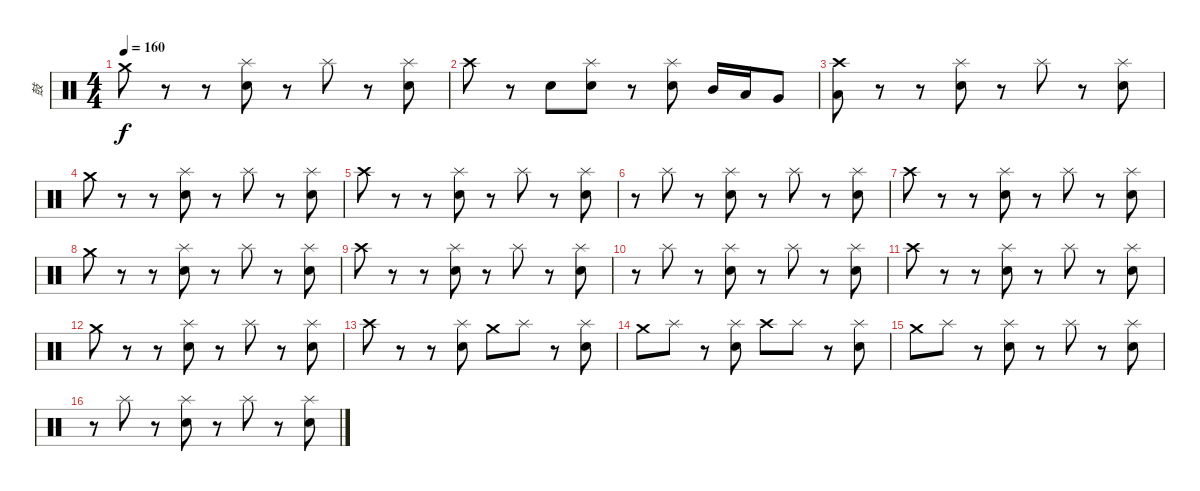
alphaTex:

\track ("鼓" "鼓") {instrument percussion}
\staff {score}
\articulation defaults
\ts (4 4)
\tempo 160
\clef neutral
\ks c "Crash medium (hit)".8{dy f}
r.8 r.8 ("Splash (hit)" "Snare (hit) 2").8 r.8 "Splash (hit)".8 r.8 ("Splash (hit)" "Snare (hit) 2").8 |
"Crash high (hit)".8 r.8 "Snare (hit) 2".8 ("Splash (hit)" "Snare (hit) 2").8 r.8 ("Splash (hit)" "Snare (hit) 2").8 "Mid Tom (hit)".16 "Low Tom (hit)".16 "Very Low Tom (hit)".8 |
("Crash high (hit)" "Low Floor Tom (hit)").8 r.8 r.8 ("Splash (hit)" "Snare (hit) 2").8 r.8 "Splash (hit)".8 r.8 ("Splash (hit)" "Snare (hit) 2").8 |
"Crash medium (hit)".8 r.8 r.8 ("Splash (hit)" "Snare (hit) 2").8 r.8 "Splash (hit)".8 r.8 ("Splash (hit)" "Snare (hit) 2").8 |
"Crash high (hit)".8 r.8 r.8 ("Splash (hit)" "Snare (hit) 2").8 r.8 "Splash (hit)".8 r.8 ("Splash (hit)" "Snare (hit) 2").8 |
r.8 "Splash (hit)".8 r.8 ("Splash (hit)" "Snare (hit) 2").8 r.8 "Splash (hit)".8 r.8 ("Splash (hit)" "Snare (hit) 2").8 |
"Crash high (hit)".8 r.8 r.8 ("Splash (hit)" "Snare (hit) 2").8 r.8 "Splash (hit)".8 r.8 ("Splash (hit)" "Snare (hit) 2").8 |
"Crash medium (hit)".8 r.8 r.8 ("Splash (hit)" "Snare (hit) 2").8 r.8 "Splash (hit)".8 r.8 ("Splash (hit)" "Snare (hit) 2").8 |
"Crash high (hit)".8 r.8 r.8 ("Splash (hit)" "Snare (hit) 2").8 r.8 "Splash (hit)".8 r.8 ("Splash (hit)" "Snare (hit) 2").8 |
r.8 "Splash (hit)".8 r.8 ("Splash (hit)" "Snare (hit) 2").8 r.8 "Splash (hit)".8 r.8 ("Splash (hit)" "Snare (hit) 2").8 |
"Crash high (hit)".8 r.8 r.8 ("Splash (hit)" "Snare (hit) 2").8 r.8 "Splash (hit)".8 r.8 ("Splash (hit)" "Snare (hit) 2").8 |
"Crash medium (hit)".8 r.8 r.8 ("Splash (hit)" "Snare (hit) 2").8 r.8 "Splash (hit)".8 r.8 ("Splash (hit)" "Snare (hit) 2").8 |
"Crash high (hit)".8 r.8 r.8 ("Splash (hit)" "Snare (hit) 2").8 "Crash medium (hit)".8 "Splash (hit)".8 r.8 ("Splash (hit)" "Snare (hit) 2").8 |
"Crash medium (hit)".8 "Splash (hit)".8 r.8 ("Splash (hit)" "Snare (hit) 2").8 "Crash high (hit)".8 "Splash (hit)".8 r.8 ("Splash (hit)" "Snare (hit) 2").8 |
"Crash medium (hit)".8 "Splash (hit)".8 r.8 ("Splash (hit)" "Snare (hit) 2").8 r.8 "Splash (hit)".8 r.8 ("Splash (hit)" "Snare (hit) 2").8 |
r.8 "Splash (hit)".8 r.8 ("Splash (hit)" "Snare (hit) 2").8 r.8 "Splash (hit)".8 r.8 ("Splash (hit)" "Snare (hit) 2").8
